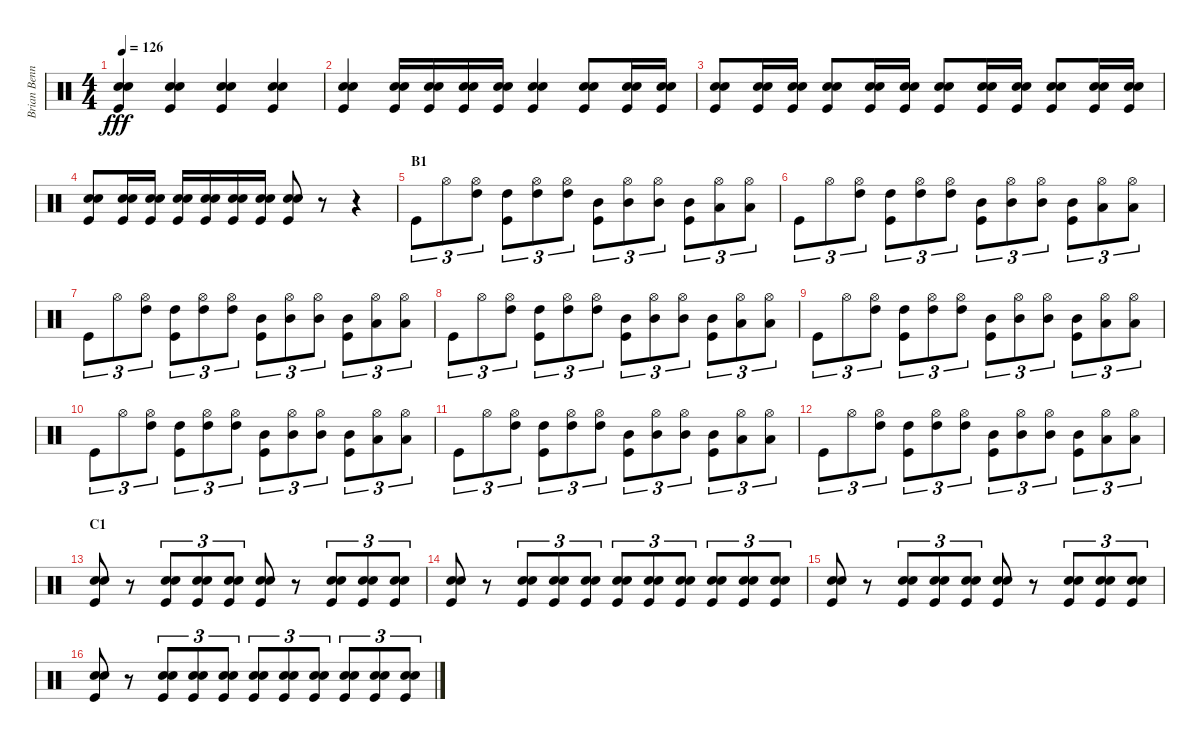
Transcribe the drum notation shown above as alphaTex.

\track ("Brian Bennett" "Brian Benn") {instrument percussion}
\staff {score}
\articulation defaults
\ts (4 4)
\tempo 126
\clef neutral
\ks c
("Electric Snare (hit)" "Snare (hit) 2" "Kick (hit)").4{dy fff} ("Electric Snare (hit)" "Snare (hit) 2" "Kick (hit)").4 ("Electric Snare (hit)" "Snare (hit) 2" "Kick (hit)").4 ("Electric Snare (hit)" "Snare (hit) 2" "Kick (hit)").4 |
("Electric Snare (hit)" "Snare (hit) 2" "Kick (hit)").4 ("Electric Snare (hit)" "Snare (hit) 2" "Kick (hit)").16 ("Electric Snare (hit)" "Snare (hit) 2" "Kick (hit)").16 ("Electric Snare (hit)" "Snare (hit) 2" "Kick (hit)").16 ("Electric Snare (hit)" "Snare (hit) 2" "Kick (hit)").16 ("Electric Snare (hit)" "Snare (hit) 2" "Kick (hit)").4 ("Electric Snare (hit)" "Snare (hit) 2" "Kick (hit)").8 ("Electric Snare (hit)" "Snare (hit) 2" "Kick (hit)").16 ("Electric Snare (hit)" "Snare (hit) 2" "Kick (hit)").16 |
("Electric Snare (hit)" "Snare (hit) 2" "Kick (hit)").8 ("Electric Snare (hit)" "Snare (hit) 2" "Kick (hit)").16 ("Electric Snare (hit)" "Snare (hit) 2" "Kick (hit)").16 ("Electric Snare (hit)" "Snare (hit) 2" "Kick (hit)").8 ("Electric Snare (hit)" "Snare (hit) 2" "Kick (hit)").16 ("Electric Snare (hit)" "Snare (hit) 2" "Kick (hit)").16 ("Electric Snare (hit)" "Snare (hit) 2" "Kick (hit)").8 ("Electric Snare (hit)" "Snare (hit) 2" "Kick (hit)").16 ("Electric Snare (hit)" "Snare (hit) 2" "Kick (hit)").16 ("Electric Snare (hit)" "Snare (hit) 2" "Kick (hit)").8 ("Electric Snare (hit)" "Snare (hit) 2" "Kick (hit)").16 ("Electric Snare (hit)" "Snare (hit) 2" "Kick (hit)").16 |
("Electric Snare (hit)" "Snare (hit) 2" "Kick (hit)").8 ("Electric Snare (hit)" "Snare (hit) 2" "Kick (hit)").16 ("Electric Snare (hit)" "Snare (hit) 2" "Kick (hit)").16 ("Electric Snare (hit)" "Snare (hit) 2" "Kick (hit)").16 ("Electric Snare (hit)" "Snare (hit) 2" "Kick (hit)").16 ("Electric Snare (hit)" "Snare (hit) 2" "Kick (hit)").16 ("Electric Snare (hit)" "Snare (hit) 2" "Kick (hit)").16 ("Electric Snare (hit)" "Snare (hit) 2" "Kick (hit)").8 r.8 r.4 |
\section ("" "B1")
"Kick (hit)".8{tu (3 2)} "Hi-Hat (open)".8{tu (3 2)} ("Hi-Hat (open)" "High Tom (hit)").8{tu (3 2)} ("High Tom (hit)" "Kick (hit)").8{tu (3 2)} ("Hi-Hat (open)" "High Tom (hit)").8{tu (3 2)} ("Hi-Hat (open)" "High Tom (hit)").8{tu (3 2)} ("Mid Tom (hit)" "Kick (hit)").8{tu (3 2)} ("Hi-Hat (open)" "Mid Tom (hit)").8{tu (3 2)} ("Hi-Hat (open)" "Mid Tom (hit)").8{tu (3 2)} ("Mid Tom (hit)" "Kick (hit)").8{tu (3 2)} ("Hi-Hat (open)" "Low Tom (hit)").8{tu (3 2)} ("Hi-Hat (open)" "Low Tom (hit)").8{tu (3 2)} |
"Kick (hit)".8{tu (3 2)} "Hi-Hat (open)".8{tu (3 2)} ("Hi-Hat (open)" "High Tom (hit)").8{tu (3 2)} ("High Tom (hit)" "Kick (hit)").8{tu (3 2)} ("Hi-Hat (open)" "High Tom (hit)").8{tu (3 2)} ("Hi-Hat (open)" "High Tom (hit)").8{tu (3 2)} ("Mid Tom (hit)" "Kick (hit)").8{tu (3 2)} ("Hi-Hat (open)" "Mid Tom (hit)").8{tu (3 2)} ("Hi-Hat (open)" "Mid Tom (hit)").8{tu (3 2)} ("Mid Tom (hit)" "Kick (hit)").8{tu (3 2)} ("Hi-Hat (open)" "Low Tom (hit)").8{tu (3 2)} ("Hi-Hat (open)" "Low Tom (hit)").8{tu (3 2)} |
"Kick (hit)".8{tu (3 2)} "Hi-Hat (open)".8{tu (3 2)} ("Hi-Hat (open)" "High Tom (hit)").8{tu (3 2)} ("High Tom (hit)" "Kick (hit)").8{tu (3 2)} ("Hi-Hat (open)" "High Tom (hit)").8{tu (3 2)} ("Hi-Hat (open)" "High Tom (hit)").8{tu (3 2)} ("Mid Tom (hit)" "Kick (hit)").8{tu (3 2)} ("Hi-Hat (open)" "Mid Tom (hit)").8{tu (3 2)} ("Hi-Hat (open)" "Mid Tom (hit)").8{tu (3 2)} ("Mid Tom (hit)" "Kick (hit)").8{tu (3 2)} ("Hi-Hat (open)" "Low Tom (hit)").8{tu (3 2)} ("Hi-Hat (open)" "Low Tom (hit)").8{tu (3 2)} |
"Kick (hit)".8{tu (3 2)} "Hi-Hat (open)".8{tu (3 2)} ("Hi-Hat (open)" "High Tom (hit)").8{tu (3 2)} ("High Tom (hit)" "Kick (hit)").8{tu (3 2)} ("Hi-Hat (open)" "High Tom (hit)").8{tu (3 2)} ("Hi-Hat (open)" "High Tom (hit)").8{tu (3 2)} ("Mid Tom (hit)" "Kick (hit)").8{tu (3 2)} ("Hi-Hat (open)" "Mid Tom (hit)").8{tu (3 2)} ("Hi-Hat (open)" "Mid Tom (hit)").8{tu (3 2)} ("Mid Tom (hit)" "Kick (hit)").8{tu (3 2)} ("Hi-Hat (open)" "Low Tom (hit)").8{tu (3 2)} ("Hi-Hat (open)" "Low Tom (hit)").8{tu (3 2)} |
"Kick (hit)".8{tu (3 2)} "Hi-Hat (open)".8{tu (3 2)} ("Hi-Hat (open)" "High Tom (hit)").8{tu (3 2)} ("High Tom (hit)" "Kick (hit)").8{tu (3 2)} ("Hi-Hat (open)" "High Tom (hit)").8{tu (3 2)} ("Hi-Hat (open)" "High Tom (hit)").8{tu (3 2)} ("Mid Tom (hit)" "Kick (hit)").8{tu (3 2)} ("Hi-Hat (open)" "Mid Tom (hit)").8{tu (3 2)} ("Hi-Hat (open)" "Mid Tom (hit)").8{tu (3 2)} ("Mid Tom (hit)" "Kick (hit)").8{tu (3 2)} ("Hi-Hat (open)" "Low Tom (hit)").8{tu (3 2)} ("Hi-Hat (open)" "Low Tom (hit)").8{tu (3 2)} |
"Kick (hit)".8{tu (3 2)} "Hi-Hat (open)".8{tu (3 2)} ("Hi-Hat (open)" "High Tom (hit)").8{tu (3 2)} ("High Tom (hit)" "Kick (hit)").8{tu (3 2)} ("Hi-Hat (open)" "High Tom (hit)").8{tu (3 2)} ("Hi-Hat (open)" "High Tom (hit)").8{tu (3 2)} ("Mid Tom (hit)" "Kick (hit)").8{tu (3 2)} ("Hi-Hat (open)" "Mid Tom (hit)").8{tu (3 2)} ("Hi-Hat (open)" "Mid Tom (hit)").8{tu (3 2)} ("Mid Tom (hit)" "Kick (hit)").8{tu (3 2)} ("Hi-Hat (open)" "Low Tom (hit)").8{tu (3 2)} ("Hi-Hat (open)" "Low Tom (hit)").8{tu (3 2)} |
"Kick (hit)".8{tu (3 2)} "Hi-Hat (open)".8{tu (3 2)} ("Hi-Hat (open)" "High Tom (hit)").8{tu (3 2)} ("High Tom (hit)" "Kick (hit)").8{tu (3 2)} ("Hi-Hat (open)" "High Tom (hit)").8{tu (3 2)} ("Hi-Hat (open)" "High Tom (hit)").8{tu (3 2)} ("Mid Tom (hit)" "Kick (hit)").8{tu (3 2)} ("Hi-Hat (open)" "Mid Tom (hit)").8{tu (3 2)} ("Hi-Hat (open)" "Mid Tom (hit)").8{tu (3 2)} ("Mid Tom (hit)" "Kick (hit)").8{tu (3 2)} ("Hi-Hat (open)" "Low Tom (hit)").8{tu (3 2)} ("Hi-Hat (open)" "Low Tom (hit)").8{tu (3 2)} |
"Kick (hit)".8{tu (3 2)} "Hi-Hat (open)".8{tu (3 2)} ("Hi-Hat (open)" "High Tom (hit)").8{tu (3 2)} ("High Tom (hit)" "Kick (hit)").8{tu (3 2)} ("Hi-Hat (open)" "High Tom (hit)").8{tu (3 2)} ("Hi-Hat (open)" "High Tom (hit)").8{tu (3 2)} ("Mid Tom (hit)" "Kick (hit)").8{tu (3 2)} ("Hi-Hat (open)" "Mid Tom (hit)").8{tu (3 2)} ("Hi-Hat (open)" "Mid Tom (hit)").8{tu (3 2)} ("Mid Tom (hit)" "Kick (hit)").8{tu (3 2)} ("Hi-Hat (open)" "Low Tom (hit)").8{tu (3 2)} ("Hi-Hat (open)" "Low Tom (hit)").8{tu (3 2)} |
\section ("" "C1")
("Electric Snare (hit)" "Snare (hit) 2" "Kick (hit)").8 r.8 ("Electric Snare (hit)" "Snare (hit) 2" "Kick (hit)").8{tu (3 2)} ("Electric Snare (hit)" "Snare (hit) 2" "Kick (hit)").8{tu (3 2)} ("Electric Snare (hit)" "Snare (hit) 2" "Kick (hit)").8{tu (3 2)} ("Electric Snare (hit)" "Snare (hit) 2" "Kick (hit)").8 r.8 ("Electric Snare (hit)" "Snare (hit) 2" "Kick (hit)").8{tu (3 2)} ("Electric Snare (hit)" "Snare (hit) 2" "Kick (hit)").8{tu (3 2)} ("Electric Snare (hit)" "Snare (hit) 2" "Kick (hit)").8{tu (3 2)} |
("Electric Snare (hit)" "Snare (hit) 2" "Kick (hit)").8 r.8 ("Electric Snare (hit)" "Snare (hit) 2" "Kick (hit)").8{tu (3 2)} ("Electric Snare (hit)" "Snare (hit) 2" "Kick (hit)").8{tu (3 2)} ("Electric Snare (hit)" "Snare (hit) 2" "Kick (hit)").8{tu (3 2)} ("Electric Snare (hit)" "Snare (hit) 2" "Kick (hit)").8{tu (3 2)} ("Electric Snare (hit)" "Snare (hit) 2" "Kick (hit)").8{tu (3 2)} ("Electric Snare (hit)" "Snare (hit) 2" "Kick (hit)").8{tu (3 2)} ("Electric Snare (hit)" "Snare (hit) 2" "Kick (hit)").8{tu (3 2)} ("Electric Snare (hit)" "Snare (hit) 2" "Kick (hit)").8{tu (3 2)} ("Electric Snare (hit)" "Snare (hit) 2" "Kick (hit)").8{tu (3 2)} |
("Electric Snare (hit)" "Snare (hit) 2" "Kick (hit)").8 r.8 ("Electric Snare (hit)" "Snare (hit) 2" "Kick (hit)").8{tu (3 2)} ("Electric Snare (hit)" "Snare (hit) 2" "Kick (hit)").8{tu (3 2)} ("Electric Snare (hit)" "Snare (hit) 2" "Kick (hit)").8{tu (3 2)} ("Electric Snare (hit)" "Snare (hit) 2" "Kick (hit)").8 r.8 ("Electric Snare (hit)" "Snare (hit) 2" "Kick (hit)").8{tu (3 2)} ("Electric Snare (hit)" "Snare (hit) 2" "Kick (hit)").8{tu (3 2)} ("Electric Snare (hit)" "Snare (hit) 2" "Kick (hit)").8{tu (3 2)} |
("Electric Snare (hit)" "Snare (hit) 2" "Kick (hit)").8 r.8 ("Electric Snare (hit)" "Snare (hit) 2" "Kick (hit)").8{tu (3 2)} ("Electric Snare (hit)" "Snare (hit) 2" "Kick (hit)").8{tu (3 2)} ("Electric Snare (hit)" "Snare (hit) 2" "Kick (hit)").8{tu (3 2)} ("Electric Snare (hit)" "Snare (hit) 2" "Kick (hit)").8{tu (3 2)} ("Electric Snare (hit)" "Snare (hit) 2" "Kick (hit)").8{tu (3 2)} ("Electric Snare (hit)" "Snare (hit) 2" "Kick (hit)").8{tu (3 2)} ("Electric Snare (hit)" "Snare (hit) 2" "Kick (hit)").8{tu (3 2)} ("Electric Snare (hit)" "Snare (hit) 2" "Kick (hit)").8{tu (3 2)} ("Electric Snare (hit)" "Snare (hit) 2" "Kick (hit)").8{tu (3 2)}
